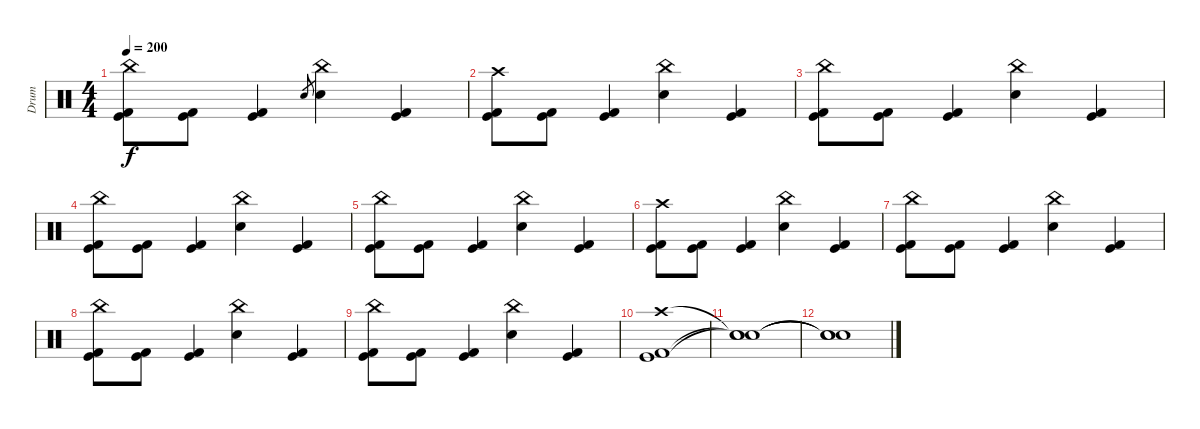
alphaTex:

\track ("Drum" "Drum") {instrument percussion}
\staff {score}
\articulation defaults
\ts (4 4)
\tempo 200
\clef neutral
\ks c
("China (hit)" "Kick (hit)" "Kick (hit) 2").8{dy f} ("Kick (hit)" "Kick (hit) 2").8 ("Kick (hit)" "Kick (hit) 2").4 "Electric Snare (hit)".8{gr} ("China (hit)" "Electric Snare (hit)").4 ("Kick (hit)" "Kick (hit) 2").4 |
("Crash high (hit)" "Kick (hit)" "Kick (hit) 2").8 ("Kick (hit)" "Kick (hit) 2").8 ("Kick (hit)" "Kick (hit) 2").4 ("China (hit)" "Electric Snare (hit)").4 ("Kick (hit)" "Kick (hit) 2").4 |
("China (hit)" "Kick (hit)" "Kick (hit) 2").8 ("Kick (hit)" "Kick (hit) 2").8 ("Kick (hit)" "Kick (hit) 2").4 ("China (hit)" "Electric Snare (hit)").4 ("Kick (hit)" "Kick (hit) 2").4 |
("China (hit)" "Kick (hit)" "Kick (hit) 2").8 ("Kick (hit)" "Kick (hit) 2").8 ("Kick (hit)" "Kick (hit) 2").4 ("China (hit)" "Electric Snare (hit)").4 ("Kick (hit)" "Kick (hit) 2").4 |
("China (hit)" "Kick (hit)" "Kick (hit) 2").8 ("Kick (hit)" "Kick (hit) 2").8 ("Kick (hit)" "Kick (hit) 2").4 ("China (hit)" "Electric Snare (hit)").4 ("Kick (hit)" "Kick (hit) 2").4 |
("Crash high (hit)" "Kick (hit)" "Kick (hit) 2").8 ("Kick (hit)" "Kick (hit) 2").8 ("Kick (hit)" "Kick (hit) 2").4 ("China (hit)" "Electric Snare (hit)").4 ("Kick (hit)" "Kick (hit) 2").4 |
("China (hit)" "Kick (hit)" "Kick (hit) 2").8 ("Kick (hit)" "Kick (hit) 2").8 ("Kick (hit)" "Kick (hit) 2").4 ("China (hit)" "Electric Snare (hit)").4 ("Kick (hit)" "Kick (hit) 2").4 |
("China (hit)" "Kick (hit)" "Kick (hit) 2").8 ("Kick (hit)" "Kick (hit) 2").8 ("Kick (hit)" "Kick (hit) 2").4 ("China (hit)" "Electric Snare (hit)").4 ("Kick (hit)" "Kick (hit) 2").4 |
("China (hit)" "Kick (hit)" "Kick (hit) 2").8 ("Kick (hit)" "Kick (hit) 2").8 ("Kick (hit)" "Kick (hit) 2").4 ("China (hit)" "Electric Snare (hit)").4 ("Kick (hit)" "Kick (hit) 2").4 |
("Crash high (hit)" "Kick (hit)" "Kick (hit) 2").1 |
("Snare (hit)"{t} "Snare (hit)"{t} "Snare (hit)"{t}).1 |
("Snare (hit)"{t} "Snare (hit)"{t} "Snare (hit)"{t}).1
